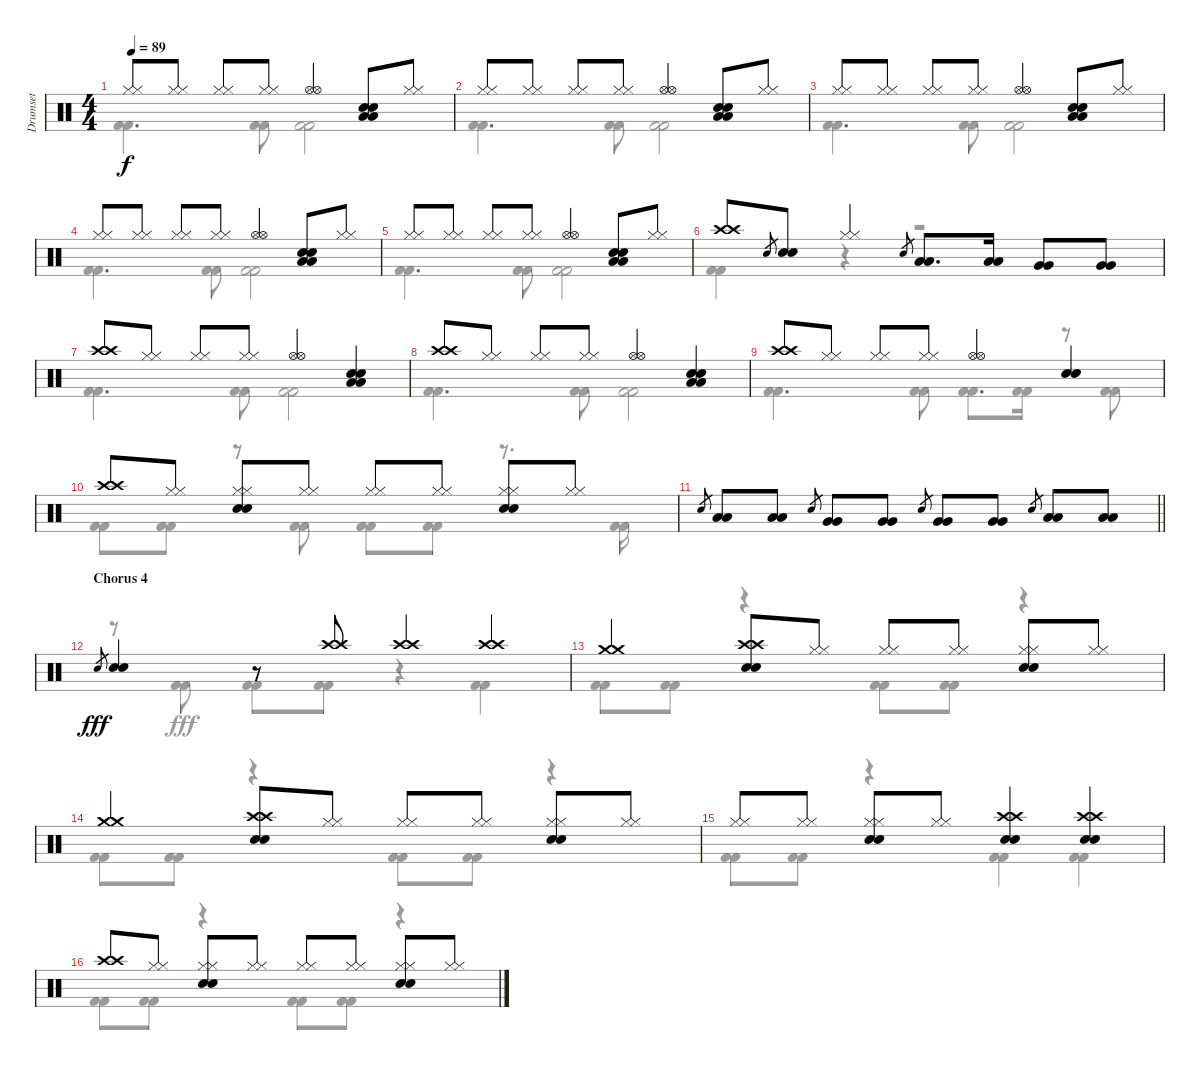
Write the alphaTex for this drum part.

\track ("Drumset" "Drumset") {instrument percussion}
\staff {score}
\articulation defaults
\voice
\ts (4 4)
\tempo 89
\clef neutral
\ks c
("Hi-Hat (closed)" "Hi-Hat (closed)").8{dy f} ("Hi-Hat (closed)" "Hi-Hat (closed)").8 ("Hi-Hat (closed)" "Hi-Hat (closed)").8 ("Hi-Hat (closed)" "Hi-Hat (closed)").8 ("Hi-Hat (open)" "Hi-Hat (open)").4 ("Low Floor Tom (hit)" "Low Floor Tom (hit)" "Electric Snare (hit)" "Electric Snare (hit)").8 ("Hi-Hat (closed)" "Hi-Hat (closed)").8 |
("Hi-Hat (closed)" "Hi-Hat (closed)").8 ("Hi-Hat (closed)" "Hi-Hat (closed)").8 ("Hi-Hat (closed)" "Hi-Hat (closed)").8 ("Hi-Hat (closed)" "Hi-Hat (closed)").8 ("Hi-Hat (open)" "Hi-Hat (open)").4 ("Low Floor Tom (hit)" "Low Floor Tom (hit)" "Electric Snare (hit)" "Electric Snare (hit)").8 ("Hi-Hat (closed)" "Hi-Hat (closed)").8 |
("Hi-Hat (closed)" "Hi-Hat (closed)").8 ("Hi-Hat (closed)" "Hi-Hat (closed)").8 ("Hi-Hat (closed)" "Hi-Hat (closed)").8 ("Hi-Hat (closed)" "Hi-Hat (closed)").8 ("Hi-Hat (open)" "Hi-Hat (open)").4 ("Low Floor Tom (hit)" "Low Floor Tom (hit)" "Electric Snare (hit)" "Electric Snare (hit)").8 ("Hi-Hat (closed)" "Hi-Hat (closed)").8 |
("Hi-Hat (closed)" "Hi-Hat (closed)").8 ("Hi-Hat (closed)" "Hi-Hat (closed)").8 ("Hi-Hat (closed)" "Hi-Hat (closed)").8 ("Hi-Hat (closed)" "Hi-Hat (closed)").8 ("Hi-Hat (open)" "Hi-Hat (open)").4 ("Low Floor Tom (hit)" "Low Floor Tom (hit)" "Electric Snare (hit)" "Electric Snare (hit)").8 ("Hi-Hat (closed)" "Hi-Hat (closed)").8 |
("Hi-Hat (closed)" "Hi-Hat (closed)").8 ("Hi-Hat (closed)" "Hi-Hat (closed)").8 ("Hi-Hat (closed)" "Hi-Hat (closed)").8 ("Hi-Hat (closed)" "Hi-Hat (closed)").8 ("Hi-Hat (open)" "Hi-Hat (open)").4 ("Low Floor Tom (hit)" "Low Floor Tom (hit)" "Electric Snare (hit)" "Electric Snare (hit)").8 ("Hi-Hat (closed)" "Hi-Hat (closed)").8 |
("Crash high (hit)" "Crash high (hit)").8 "Snare (hit)".8{gr} ("Electric Snare (hit)" "Electric Snare (hit)").8 ("Hi-Hat (closed)" "Hi-Hat (closed)").4 "Snare (hit)".8{gr} ("Low Tom (hit)" "Low Tom (hit)").8{d} ("Low Tom (hit)" "Low Tom (hit)").16 ("Very Low Tom (hit)" "Very Low Tom (hit)").8 ("Very Low Tom (hit)" "Very Low Tom (hit)").8 |
("Crash high (hit)" "Crash high (hit)").8 ("Hi-Hat (closed)" "Hi-Hat (closed)").8 ("Hi-Hat (closed)" "Hi-Hat (closed)").8 ("Hi-Hat (closed)" "Hi-Hat (closed)").8 ("Hi-Hat (open)" "Hi-Hat (open)").4 ("Low Floor Tom (hit)" "Low Floor Tom (hit)" "Electric Snare (hit)" "Electric Snare (hit)").4 |
("Crash high (hit)" "Crash high (hit)").8 ("Hi-Hat (closed)" "Hi-Hat (closed)").8 ("Hi-Hat (closed)" "Hi-Hat (closed)").8 ("Hi-Hat (closed)" "Hi-Hat (closed)").8 ("Hi-Hat (open)" "Hi-Hat (open)").4 ("Low Floor Tom (hit)" "Low Floor Tom (hit)" "Electric Snare (hit)" "Electric Snare (hit)").4 |
("Crash high (hit)" "Crash high (hit)").8 ("Hi-Hat (closed)" "Hi-Hat (closed)").8 ("Hi-Hat (closed)" "Hi-Hat (closed)").8 ("Hi-Hat (closed)" "Hi-Hat (closed)").8 ("Hi-Hat (open)" "Hi-Hat (open)").4 ("Electric Snare (hit)" "Electric Snare (hit)").4 |
("Crash high (hit)" "Crash high (hit)").8 ("Hi-Hat (closed)" "Hi-Hat (closed)").8 ("Electric Snare (hit)" "Electric Snare (hit)" "Hi-Hat (closed)" "Hi-Hat (closed)").8 ("Hi-Hat (closed)" "Hi-Hat (closed)").8 ("Hi-Hat (closed)" "Hi-Hat (closed)").8 ("Hi-Hat (closed)" "Hi-Hat (closed)").8 ("Electric Snare (hit)" "Electric Snare (hit)" "Hi-Hat (closed)" "Hi-Hat (closed)").8 ("Hi-Hat (closed)" "Hi-Hat (closed)").8 |
\barLineRight lightlight "Snare (hit)".8{gr}
("Low Tom (hit)" "Low Tom (hit)").8 ("Low Tom (hit)" "Low Tom (hit)").8 "Snare (hit)".8{gr} ("Very Low Tom (hit)" "Very Low Tom (hit)").8 ("Very Low Tom (hit)" "Very Low Tom (hit)").8 "Snare (hit)".8{gr} ("Very Low Tom (hit)" "Very Low Tom (hit)").8 ("Very Low Tom (hit)" "Very Low Tom (hit)").8 "Snare (hit)".8{gr} ("Low Floor Tom (hit)" "Low Floor Tom (hit)").8 ("Low Floor Tom (hit)" "Low Floor Tom (hit)").8 |
\section ("" "Chorus 4")
"Snare (hit)".8{gr dy fff} ("Electric Snare (hit)" "Electric Snare (hit)").4 r.8 ("Crash high (hit)" "Crash high (hit)").8 ("Crash high (hit)" "Crash high (hit)").4 ("Crash high (hit)" "Crash high (hit)").4 |
("Crash medium (hit)" "Crash medium (hit)").4 ("Electric Snare (hit)" "Electric Snare (hit)" "Crash high (hit)" "Crash high (hit)").8 ("Hi-Hat (closed)" "Hi-Hat (closed)").8 ("Hi-Hat (closed)" "Hi-Hat (closed)").8 ("Hi-Hat (closed)" "Hi-Hat (closed)").8 ("Electric Snare (hit)" "Electric Snare (hit)" "Hi-Hat (closed)" "Hi-Hat (closed)").8 ("Hi-Hat (closed)" "Hi-Hat (closed)").8 |
("Crash medium (hit)" "Crash medium (hit)").4 ("Electric Snare (hit)" "Electric Snare (hit)" "Crash high (hit)" "Crash high (hit)").8 ("Hi-Hat (closed)" "Hi-Hat (closed)").8 ("Hi-Hat (closed)" "Hi-Hat (closed)").8 ("Hi-Hat (closed)" "Hi-Hat (closed)").8 ("Electric Snare (hit)" "Electric Snare (hit)" "Hi-Hat (closed)" "Hi-Hat (closed)").8 ("Hi-Hat (closed)" "Hi-Hat (closed)").8 |
("Hi-Hat (closed)" "Hi-Hat (closed)").8 ("Hi-Hat (closed)" "Hi-Hat (closed)").8 ("Electric Snare (hit)" "Electric Snare (hit)" "Hi-Hat (closed)" "Hi-Hat (closed)").8 ("Hi-Hat (closed)" "Hi-Hat (closed)").8 ("Electric Snare (hit)" "Electric Snare (hit)" "Crash high (hit)" "Crash high (hit)").4 ("Electric Snare (hit)" "Electric Snare (hit)" "Crash high (hit)" "Crash high (hit)").4 |
("Crash high (hit)" "Crash high (hit)").8 ("Hi-Hat (closed)" "Hi-Hat (closed)").8 ("Electric Snare (hit)" "Electric Snare (hit)" "Hi-Hat (closed)" "Hi-Hat (closed)").8 ("Hi-Hat (closed)" "Hi-Hat (closed)").8 ("Hi-Hat (closed)" "Hi-Hat (closed)").8 ("Hi-Hat (closed)" "Hi-Hat (closed)").8 ("Electric Snare (hit)" "Electric Snare (hit)" "Hi-Hat (closed)" "Hi-Hat (closed)").8 ("Hi-Hat (closed)" "Hi-Hat (closed)").8
\voice
\clef neutral
\ottava regular
\simile none
\ks c
("Kick (hit) 2" "Kick (hit) 2").4{d dy f} ("Kick (hit) 2" "Kick (hit) 2").8 ("Kick (hit) 2" "Kick (hit) 2").2 |
("Kick (hit) 2" "Kick (hit) 2").4{d} ("Kick (hit) 2" "Kick (hit) 2").8 ("Kick (hit) 2" "Kick (hit) 2").2 |
("Kick (hit) 2" "Kick (hit) 2").4{d} ("Kick (hit) 2" "Kick (hit) 2").8 ("Kick (hit) 2" "Kick (hit) 2").2 |
("Kick (hit) 2" "Kick (hit) 2").4{d} ("Kick (hit) 2" "Kick (hit) 2").8 ("Kick (hit) 2" "Kick (hit) 2").2 |
("Kick (hit) 2" "Kick (hit) 2").4{d} ("Kick (hit) 2" "Kick (hit) 2").8 ("Kick (hit) 2" "Kick (hit) 2").2 |
("Kick (hit) 2" "Kick (hit) 2").4 r.4 r.2 |
("Kick (hit) 2" "Kick (hit) 2").4{d} ("Kick (hit) 2" "Kick (hit) 2").8 ("Kick (hit) 2" "Kick (hit) 2").2 |
("Kick (hit) 2" "Kick (hit) 2").4{d} ("Kick (hit) 2" "Kick (hit) 2").8 ("Kick (hit) 2" "Kick (hit) 2").2 |
("Kick (hit) 2" "Kick (hit) 2").4{d} ("Kick (hit) 2" "Kick (hit) 2").8 ("Kick (hit) 2" "Kick (hit) 2").8{d} ("Kick (hit) 2" "Kick (hit) 2").16 r.8 ("Kick (hit) 2" "Kick (hit) 2").8 |
("Kick (hit) 2" "Kick (hit) 2").8 ("Kick (hit) 2" "Kick (hit) 2").8 r.8 ("Kick (hit) 2" "Kick (hit) 2").8 ("Kick (hit) 2" "Kick (hit) 2").8 ("Kick (hit) 2" "Kick (hit) 2").8 r.8{d} ("Kick (hit) 2" "Kick (hit) 2").16 |
\barLineRight lightlight
|
r.8 ("Kick (hit) 2" "Kick (hit) 2").8{dy fff} ("Kick (hit) 2" "Kick (hit) 2").8 ("Kick (hit) 2" "Kick (hit) 2").8 r.4 ("Kick (hit) 2" "Kick (hit) 2").4 |
("Kick (hit) 2" "Kick (hit) 2").8 ("Kick (hit) 2" "Kick (hit) 2").8 r.4 ("Kick (hit) 2" "Kick (hit) 2").8 ("Kick (hit) 2" "Kick (hit) 2").8 r.4 |
("Kick (hit) 2" "Kick (hit) 2").8 ("Kick (hit) 2" "Kick (hit) 2").8 r.4 ("Kick (hit) 2" "Kick (hit) 2").8 ("Kick (hit) 2" "Kick (hit) 2").8 r.4 |
("Kick (hit) 2" "Kick (hit) 2").8 ("Kick (hit) 2" "Kick (hit) 2").8 r.4 ("Kick (hit) 2" "Kick (hit) 2").4 ("Kick (hit) 2" "Kick (hit) 2").4 |
("Kick (hit) 2" "Kick (hit) 2").8 ("Kick (hit) 2" "Kick (hit) 2").8 r.4 ("Kick (hit) 2" "Kick (hit) 2").8 ("Kick (hit) 2" "Kick (hit) 2").8 r.4
